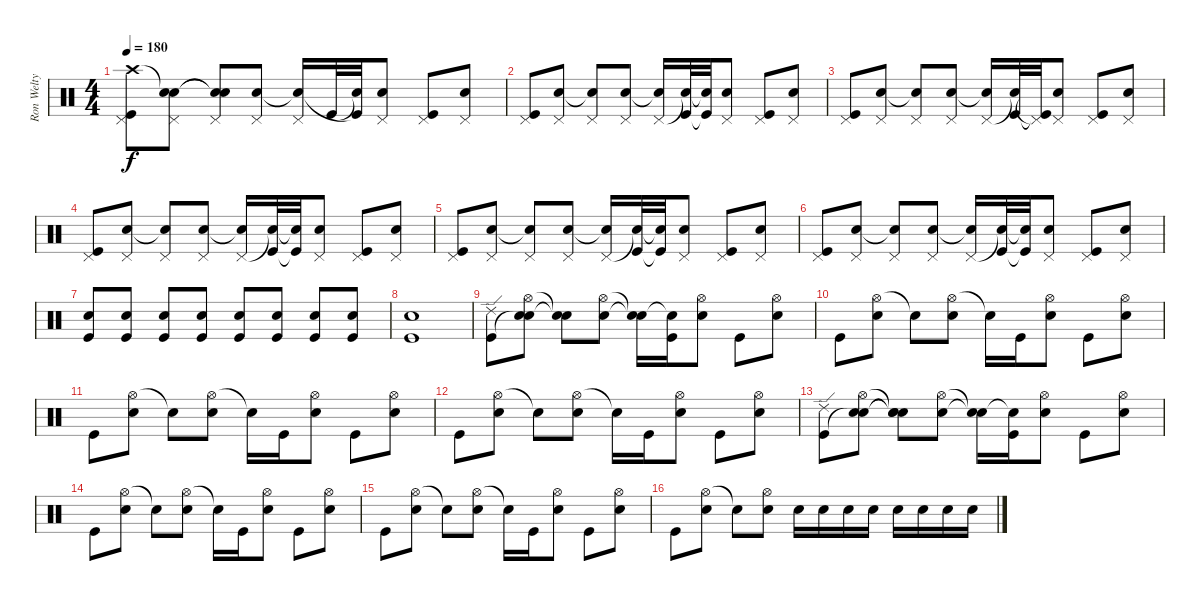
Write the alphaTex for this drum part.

\track ("Ron Welty" "Ron Welty") {instrument percussion}
\staff {score}
\articulation defaults
\ts (4 4)
\tempo 180
\clef neutral
\ks c
("Crash high (hit)" "Pedal Hi-Hat (hit)" "Kick (hit)").8{dy f} ("Snare (hit)"{t} "Pedal Hi-Hat (hit)" "Electric Snare (hit)").8 ("Snare (hit)"{t} "Pedal Hi-Hat (hit)" "Snare (hit)"{t}).8 ("Pedal Hi-Hat (hit)" "Electric Snare (hit)").8 ("Pedal Hi-Hat (hit)" "Snare (hit)"{t}).16 "Kick (hit)".32 ("Snare (hit)"{t} "Kick (hit)"{t}).32 ("Pedal Hi-Hat (hit)" "Electric Snare (hit)").8 ("Pedal Hi-Hat (hit)" "Kick (hit)").8 ("Pedal Hi-Hat (hit)" "Electric Snare (hit)").8 |
("Pedal Hi-Hat (hit)" "Kick (hit)").8 ("Pedal Hi-Hat (hit)" "Electric Snare (hit)").8 ("Pedal Hi-Hat (hit)" "Snare (hit)"{t}).8 ("Pedal Hi-Hat (hit)" "Electric Snare (hit)").8 ("Pedal Hi-Hat (hit)" "Snare (hit)"{t}).16 ("Snare (hit)"{t} "Kick (hit)").32 ("Snare (hit)"{t} "Kick (hit)"{t}).32 ("Pedal Hi-Hat (hit)" "Electric Snare (hit)").8 ("Pedal Hi-Hat (hit)" "Kick (hit)").8 ("Pedal Hi-Hat (hit)" "Electric Snare (hit)").8 |
("Pedal Hi-Hat (hit)" "Kick (hit)").8 ("Pedal Hi-Hat (hit)" "Electric Snare (hit)").8 ("Pedal Hi-Hat (hit)" "Snare (hit)"{t}).8 ("Pedal Hi-Hat (hit)" "Electric Snare (hit)").8 ("Pedal Hi-Hat (hit)" "Snare (hit)"{t}).16 ("Snare (hit)"{t} "Kick (hit)").32 ("Pedal Hi-Hat (hit)"{t} "Kick (hit)"{t}).32 ("Pedal Hi-Hat (hit)" "Electric Snare (hit)").8 ("Pedal Hi-Hat (hit)" "Kick (hit)").8 ("Pedal Hi-Hat (hit)" "Electric Snare (hit)").8 |
("Pedal Hi-Hat (hit)" "Kick (hit)").8 ("Pedal Hi-Hat (hit)" "Electric Snare (hit)").8 ("Pedal Hi-Hat (hit)" "Snare (hit)"{t}).8 ("Pedal Hi-Hat (hit)" "Electric Snare (hit)").8 ("Pedal Hi-Hat (hit)" "Snare (hit)"{t}).16 ("Snare (hit)"{t} "Kick (hit)").32 ("Snare (hit)"{t} "Kick (hit)"{t}).32 ("Pedal Hi-Hat (hit)" "Electric Snare (hit)").8 ("Pedal Hi-Hat (hit)" "Kick (hit)").8 ("Pedal Hi-Hat (hit)" "Electric Snare (hit)").8 |
("Pedal Hi-Hat (hit)" "Kick (hit)").8 ("Pedal Hi-Hat (hit)" "Electric Snare (hit)").8 ("Pedal Hi-Hat (hit)" "Snare (hit)"{t}).8 ("Pedal Hi-Hat (hit)" "Electric Snare (hit)").8 ("Pedal Hi-Hat (hit)" "Snare (hit)"{t}).16 ("Snare (hit)"{t} "Kick (hit)").32 ("Snare (hit)"{t} "Kick (hit)"{t}).32 ("Pedal Hi-Hat (hit)" "Electric Snare (hit)").8 ("Pedal Hi-Hat (hit)" "Kick (hit)").8 ("Pedal Hi-Hat (hit)" "Electric Snare (hit)").8 |
("Pedal Hi-Hat (hit)" "Kick (hit)").8 ("Pedal Hi-Hat (hit)" "Electric Snare (hit)").8 ("Pedal Hi-Hat (hit)" "Snare (hit)"{t}).8 ("Pedal Hi-Hat (hit)" "Electric Snare (hit)").8 ("Pedal Hi-Hat (hit)" "Snare (hit)"{t}).16 ("Snare (hit)"{t} "Kick (hit)").32 ("Snare (hit)"{t} "Kick (hit)"{t}).32 ("Pedal Hi-Hat (hit)" "Electric Snare (hit)").8 ("Pedal Hi-Hat (hit)" "Kick (hit)").8 ("Pedal Hi-Hat (hit)" "Electric Snare (hit)").8 |
("Electric Snare (hit)" "Kick (hit)").8 ("Electric Snare (hit)" "Kick (hit)").8 ("Electric Snare (hit)" "Kick (hit)").8 ("Electric Snare (hit)" "Kick (hit)").8 ("Electric Snare (hit)" "Kick (hit)").8 ("Electric Snare (hit)" "Kick (hit)").8 ("Electric Snare (hit)" "Kick (hit)").8 ("Electric Snare (hit)" "Kick (hit)").8 |
("Electric Snare (hit)" "Kick (hit)").1 |
("Ride (edge) 2" "Kick (hit)").8 ("Hi-Hat (open)" "Snare (hit)"{t} "Electric Snare (hit)").8 ("Snare (hit)"{t} "Snare (hit)"{t}).8 ("Hi-Hat (open)" "Electric Snare (hit)").8 ("Snare (hit)"{t} "Snare (hit)"{t}).16 ("Snare (hit)"{t} "Kick (hit)").16 ("Hi-Hat (open)" "Electric Snare (hit)").8 "Kick (hit)".8 ("Hi-Hat (open)" "Electric Snare (hit)").8 |
"Kick (hit)".8 ("Hi-Hat (open)" "Electric Snare (hit)").8 "Snare (hit)"{t}.8 ("Hi-Hat (open)" "Electric Snare (hit)").8 "Snare (hit)"{t}.16 "Kick (hit)".16 ("Hi-Hat (open)" "Electric Snare (hit)").8 "Kick (hit)".8 ("Hi-Hat (open)" "Electric Snare (hit)").8 |
"Kick (hit)".8 ("Hi-Hat (open)" "Electric Snare (hit)").8 "Snare (hit)"{t}.8 ("Hi-Hat (open)" "Electric Snare (hit)").8 "Snare (hit)"{t}.16 "Kick (hit)".16 ("Hi-Hat (open)" "Electric Snare (hit)").8 "Kick (hit)".8 ("Hi-Hat (open)" "Electric Snare (hit)").8 |
"Kick (hit)".8 ("Hi-Hat (open)" "Electric Snare (hit)").8 "Snare (hit)"{t}.8 ("Hi-Hat (open)" "Electric Snare (hit)").8 "Snare (hit)"{t}.16 "Kick (hit)".16 ("Hi-Hat (open)" "Electric Snare (hit)").8 "Kick (hit)".8 ("Hi-Hat (open)" "Electric Snare (hit)").8 |
("Ride (edge) 2" "Kick (hit)").8 ("Hi-Hat (open)" "Snare (hit)"{t} "Electric Snare (hit)").8 ("Snare (hit)"{t} "Snare (hit)"{t} "Snare (hit)"{t}).8 ("Hi-Hat (open)" "Electric Snare (hit)").8 ("Snare (hit)"{t} "Snare (hit)"{t}).16 ("Snare (hit)"{t} "Kick (hit)").16 ("Hi-Hat (open)" "Electric Snare (hit)").8 "Kick (hit)".8 ("Hi-Hat (open)" "Electric Snare (hit)").8 |
"Kick (hit)".8 ("Hi-Hat (open)" "Electric Snare (hit)").8 "Snare (hit)"{t}.8 ("Hi-Hat (open)" "Electric Snare (hit)").8 "Snare (hit)"{t}.16 "Kick (hit)".16 ("Hi-Hat (open)" "Electric Snare (hit)").8 "Kick (hit)".8 ("Hi-Hat (open)" "Electric Snare (hit)").8 |
"Kick (hit)".8 ("Hi-Hat (open)" "Electric Snare (hit)").8 "Snare (hit)"{t}.8 ("Hi-Hat (open)" "Electric Snare (hit)").8 "Snare (hit)"{t}.16 "Kick (hit)".16 ("Hi-Hat (open)" "Electric Snare (hit)").8 "Kick (hit)".8 ("Hi-Hat (open)" "Electric Snare (hit)").8 |
"Kick (hit)".8 ("Hi-Hat (open)" "Electric Snare (hit)").8 "Snare (hit)"{t}.8 ("Hi-Hat (open)" "Electric Snare (hit)").8 "Electric Snare (hit)".16 "Electric Snare (hit)".16 "Electric Snare (hit)".16 "Electric Snare (hit)".16 "Electric Snare (hit)".16 "Electric Snare (hit)".16 "Electric Snare (hit)".16 "Electric Snare (hit)".16
